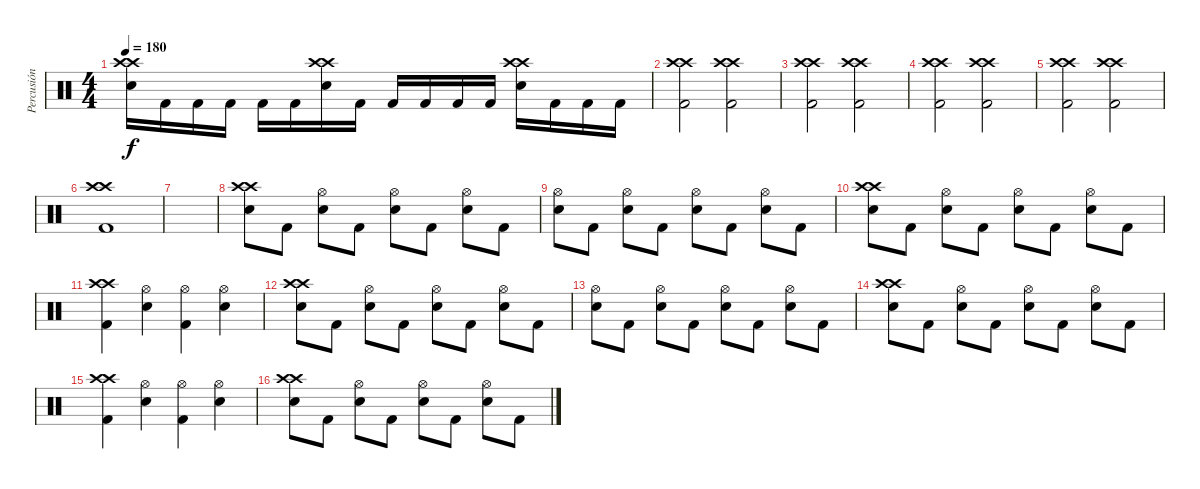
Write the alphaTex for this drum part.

\track ("Percusión" "Percusión") {instrument percussion}
\staff {score}
\articulation defaults
\ts (4 4)
\tempo 180
\clef neutral
\ks c
("Crash high (hit)" "Crash high (hit)" "Snare (hit) 2").16{dy f} "Kick (hit) 2".16 "Kick (hit) 2".16 "Kick (hit) 2".16 "Kick (hit) 2".16 "Kick (hit) 2".16 ("Crash high (hit)" "Crash high (hit)" "Snare (hit) 2").16 "Kick (hit) 2".16 "Kick (hit) 2".16 "Kick (hit) 2".16 "Kick (hit) 2".16 "Kick (hit) 2".16 ("Crash high (hit)" "Crash high (hit)" "Snare (hit) 2").16 "Kick (hit) 2".16 "Kick (hit) 2".16 "Kick (hit) 2".16 |
("Crash high (hit)" "Crash high (hit)" "Kick (hit) 2").2 ("Crash high (hit)" "Crash high (hit)" "Kick (hit) 2").2 |
("Crash high (hit)" "Crash high (hit)" "Kick (hit) 2").2 ("Crash high (hit)" "Crash high (hit)" "Kick (hit) 2").2 |
("Crash high (hit)" "Crash high (hit)" "Kick (hit) 2").2 ("Crash high (hit)" "Crash high (hit)" "Kick (hit) 2").2 |
("Crash high (hit)" "Crash high (hit)" "Kick (hit) 2").2 ("Crash high (hit)" "Crash high (hit)" "Kick (hit) 2").2 |
("Crash high (hit)" "Crash high (hit)" "Kick (hit) 2").1 |
|
("Crash high (hit)" "Crash high (hit)" "Snare (hit) 2").8 "Kick (hit) 2".8 ("Hi-Hat (open)" "Snare (hit) 2").8 "Kick (hit) 2".8 ("Hi-Hat (open)" "Snare (hit) 2").8 "Kick (hit) 2".8 ("Hi-Hat (open)" "Snare (hit) 2").8 "Kick (hit) 2".8 |
("Hi-Hat (open)" "Snare (hit) 2").8 "Kick (hit) 2".8 ("Hi-Hat (open)" "Snare (hit) 2").8 "Kick (hit) 2".8 ("Hi-Hat (open)" "Snare (hit) 2").8 "Kick (hit) 2".8 ("Hi-Hat (open)" "Snare (hit) 2").8 "Kick (hit) 2".8 |
("Crash high (hit)" "Crash high (hit)" "Snare (hit) 2").8 "Kick (hit) 2".8 ("Hi-Hat (open)" "Snare (hit) 2").8 "Kick (hit) 2".8 ("Hi-Hat (open)" "Snare (hit) 2").8 "Kick (hit) 2".8 ("Hi-Hat (open)" "Snare (hit) 2").8 "Kick (hit) 2".8 |
("Crash high (hit)" "Crash high (hit)" "Kick (hit) 2").4 ("Hi-Hat (open)" "Snare (hit) 2").4 ("Hi-Hat (open)" "Kick (hit) 2").4 ("Hi-Hat (open)" "Snare (hit) 2").4 |
("Crash high (hit)" "Crash high (hit)" "Snare (hit) 2").8 "Kick (hit) 2".8 ("Hi-Hat (open)" "Snare (hit) 2").8 "Kick (hit) 2".8 ("Hi-Hat (open)" "Snare (hit) 2").8 "Kick (hit) 2".8 ("Hi-Hat (open)" "Snare (hit) 2").8 "Kick (hit) 2".8 |
("Hi-Hat (open)" "Snare (hit) 2").8 "Kick (hit) 2".8 ("Hi-Hat (open)" "Snare (hit) 2").8 "Kick (hit) 2".8 ("Hi-Hat (open)" "Snare (hit) 2").8 "Kick (hit) 2".8 ("Hi-Hat (open)" "Snare (hit) 2").8 "Kick (hit) 2".8 |
("Crash high (hit)" "Crash high (hit)" "Snare (hit) 2").8 "Kick (hit) 2".8 ("Hi-Hat (open)" "Snare (hit) 2").8 "Kick (hit) 2".8 ("Hi-Hat (open)" "Snare (hit) 2").8 "Kick (hit) 2".8 ("Hi-Hat (open)" "Snare (hit) 2").8 "Kick (hit) 2".8 |
("Crash high (hit)" "Crash high (hit)" "Kick (hit) 2").4 ("Hi-Hat (open)" "Snare (hit) 2").4 ("Hi-Hat (open)" "Kick (hit) 2").4 ("Hi-Hat (open)" "Snare (hit) 2").4 |
("Crash high (hit)" "Crash high (hit)" "Snare (hit) 2").8 "Kick (hit) 2".8 ("Hi-Hat (open)" "Snare (hit) 2").8 "Kick (hit) 2".8 ("Hi-Hat (open)" "Snare (hit) 2").8 "Kick (hit) 2".8 ("Hi-Hat (open)" "Snare (hit) 2").8 "Kick (hit) 2".8
